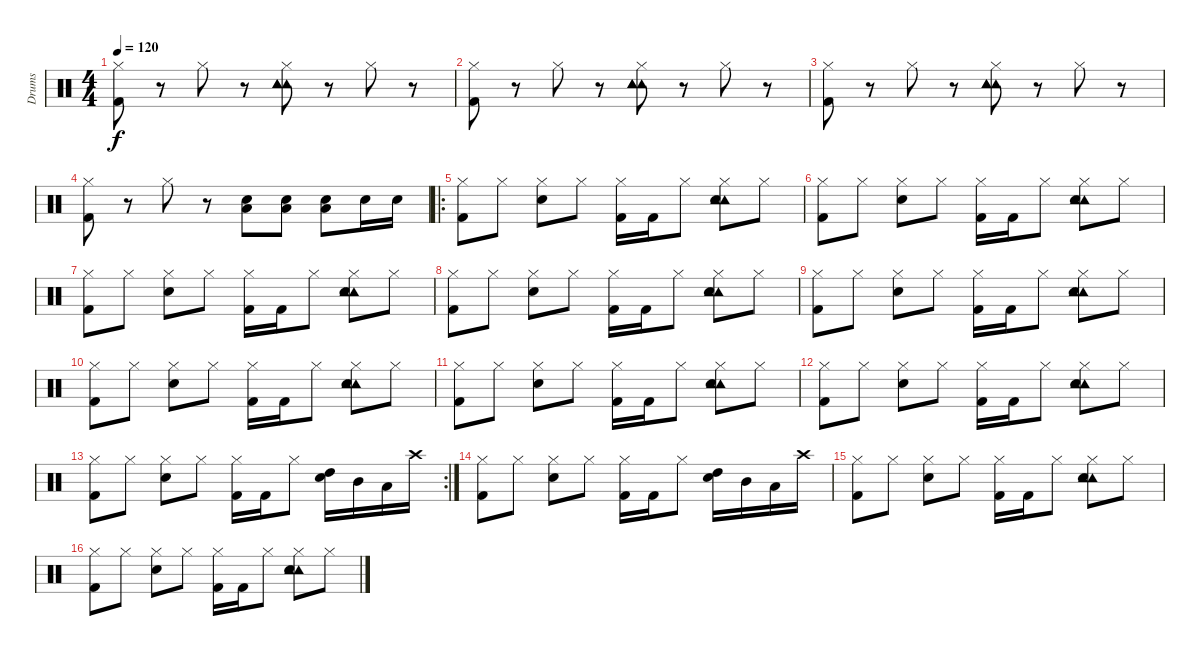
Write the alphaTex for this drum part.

\track ("Drums" "Drums") {instrument percussion}
\staff {score}
\articulation defaults
\ts (4 4)
\tempo 120
\clef neutral
\ks c
("Hi-Hat (closed)" "Kick (hit) 2").8{dy f} r.8 "Hi-Hat (closed)".8 r.8 ("Tambourine (hit)" "Tambourine (hit)" "Hi-Hat (closed)" "Tambourine (hit)").8 r.8 "Hi-Hat (closed)".8 r.8 |
("Hi-Hat (closed)" "Kick (hit) 2").8 r.8 "Hi-Hat (closed)".8 r.8 ("Tambourine (hit)" "Tambourine (hit)" "Hi-Hat (closed)" "Tambourine (hit)").8 r.8 "Hi-Hat (closed)".8 r.8 |
("Hi-Hat (closed)" "Kick (hit) 2").8 r.8 "Hi-Hat (closed)".8 r.8 ("Tambourine (hit)" "Tambourine (hit)" "Hi-Hat (closed)" "Tambourine (hit)").8 r.8 "Hi-Hat (closed)".8 r.8 |
("Hi-Hat (closed)" "Kick (hit) 2").8 r.8 "Hi-Hat (closed)".8 r.8 ("Low Tom (hit)" "Snare (hit) 2").8 ("Low Tom (hit)" "Snare (hit) 2").8 ("Low Tom (hit)" "Snare (hit) 2").8 "Snare (hit) 2".16 "Snare (hit) 2".16 |
\ro
("Hi-Hat (closed)" "Kick (hit) 2").8 "Hi-Hat (closed)".8 ("Hi-Hat (closed)" "Snare (hit) 2").8 "Hi-Hat (closed)".8 ("Hi-Hat (closed)" "Kick (hit) 2").16 "Kick (hit) 2".16 "Hi-Hat (closed)".8 ("Tambourine (hit)" "Tambourine (hit)" "Hi-Hat (closed)" "Snare (hit) 2").8 "Hi-Hat (closed)".8 |
("Hi-Hat (closed)" "Kick (hit) 2").8 "Hi-Hat (closed)".8 ("Hi-Hat (closed)" "Snare (hit) 2").8 "Hi-Hat (closed)".8 ("Hi-Hat (closed)" "Kick (hit) 2").16 "Kick (hit) 2".16 "Hi-Hat (closed)".8 ("Tambourine (hit)" "Tambourine (hit)" "Hi-Hat (closed)" "Snare (hit) 2").8 "Hi-Hat (closed)".8 |
("Hi-Hat (closed)" "Kick (hit) 2").8 "Hi-Hat (closed)".8 ("Hi-Hat (closed)" "Snare (hit) 2").8 "Hi-Hat (closed)".8 ("Hi-Hat (closed)" "Kick (hit) 2").16 "Kick (hit) 2".16 "Hi-Hat (closed)".8 ("Tambourine (hit)" "Tambourine (hit)" "Hi-Hat (closed)" "Snare (hit) 2").8 "Hi-Hat (closed)".8 |
("Hi-Hat (closed)" "Kick (hit) 2").8 "Hi-Hat (closed)".8 ("Hi-Hat (closed)" "Snare (hit) 2").8 "Hi-Hat (closed)".8 ("Hi-Hat (closed)" "Kick (hit) 2").16 "Kick (hit) 2".16 "Hi-Hat (closed)".8 ("Tambourine (hit)" "Tambourine (hit)" "Hi-Hat (closed)" "Snare (hit) 2").8 "Hi-Hat (closed)".8 |
("Hi-Hat (closed)" "Kick (hit) 2").8 "Hi-Hat (closed)".8 ("Hi-Hat (closed)" "Snare (hit) 2").8 "Hi-Hat (closed)".8 ("Hi-Hat (closed)" "Kick (hit) 2").16 "Kick (hit) 2".16 "Hi-Hat (closed)".8 ("Tambourine (hit)" "Tambourine (hit)" "Hi-Hat (closed)" "Snare (hit) 2").8 "Hi-Hat (closed)".8 |
("Hi-Hat (closed)" "Kick (hit) 2").8 "Hi-Hat (closed)".8 ("Hi-Hat (closed)" "Snare (hit) 2").8 "Hi-Hat (closed)".8 ("Hi-Hat (closed)" "Kick (hit) 2").16 "Kick (hit) 2".16 "Hi-Hat (closed)".8 ("Tambourine (hit)" "Tambourine (hit)" "Hi-Hat (closed)" "Snare (hit) 2").8 "Hi-Hat (closed)".8 |
("Hi-Hat (closed)" "Kick (hit) 2").8 "Hi-Hat (closed)".8 ("Hi-Hat (closed)" "Snare (hit) 2").8 "Hi-Hat (closed)".8 ("Hi-Hat (closed)" "Kick (hit) 2").16 "Kick (hit) 2".16 "Hi-Hat (closed)".8 ("Tambourine (hit)" "Tambourine (hit)" "Hi-Hat (closed)" "Snare (hit) 2").8 "Hi-Hat (closed)".8 |
("Hi-Hat (closed)" "Kick (hit) 2").8 "Hi-Hat (closed)".8 ("Hi-Hat (closed)" "Snare (hit) 2").8 "Hi-Hat (closed)".8 ("Hi-Hat (closed)" "Kick (hit) 2").16 "Kick (hit) 2".16 "Hi-Hat (closed)".8 ("Tambourine (hit)" "Tambourine (hit)" "Hi-Hat (closed)" "Snare (hit) 2").8 "Hi-Hat (closed)".8 |
\rc 2
("Hi-Hat (closed)" "Kick (hit) 2").8 "Hi-Hat (closed)".8 ("Hi-Hat (closed)" "Snare (hit) 2").8 "Hi-Hat (closed)".8 ("Hi-Hat (closed)" "Kick (hit) 2").16 "Kick (hit) 2".16 "Hi-Hat (closed)".8 ("High Tom (hit)" "Snare (hit) 2").16 "Mid Tom (hit)".16 "Low Tom (hit)".16 "Crash high (hit)".16 |
("Hi-Hat (closed)" "Kick (hit) 2").8 "Hi-Hat (closed)".8 ("Hi-Hat (closed)" "Snare (hit) 2").8 "Hi-Hat (closed)".8 ("Hi-Hat (closed)" "Kick (hit) 2").16 "Kick (hit) 2".16 "Hi-Hat (closed)".8 ("High Tom (hit)" "Snare (hit) 2").16 "Mid Tom (hit)".16 "Low Tom (hit)".16 "Crash high (hit)".16 |
("Hi-Hat (closed)" "Kick (hit) 2").8 "Hi-Hat (closed)".8 ("Hi-Hat (closed)" "Snare (hit) 2").8 "Hi-Hat (closed)".8 ("Hi-Hat (closed)" "Kick (hit) 2").16 "Kick (hit) 2".16 "Hi-Hat (closed)".8 ("Tambourine (hit)" "Tambourine (hit)" "Hi-Hat (closed)" "Snare (hit) 2").8 "Hi-Hat (closed)".8 |
("Hi-Hat (closed)" "Kick (hit) 2").8 "Hi-Hat (closed)".8 ("Hi-Hat (closed)" "Snare (hit) 2").8 "Hi-Hat (closed)".8 ("Hi-Hat (closed)" "Kick (hit) 2").16 "Kick (hit) 2".16 "Hi-Hat (closed)".8 ("Tambourine (hit)" "Tambourine (hit)" "Hi-Hat (closed)" "Snare (hit) 2").8 "Hi-Hat (closed)".8
